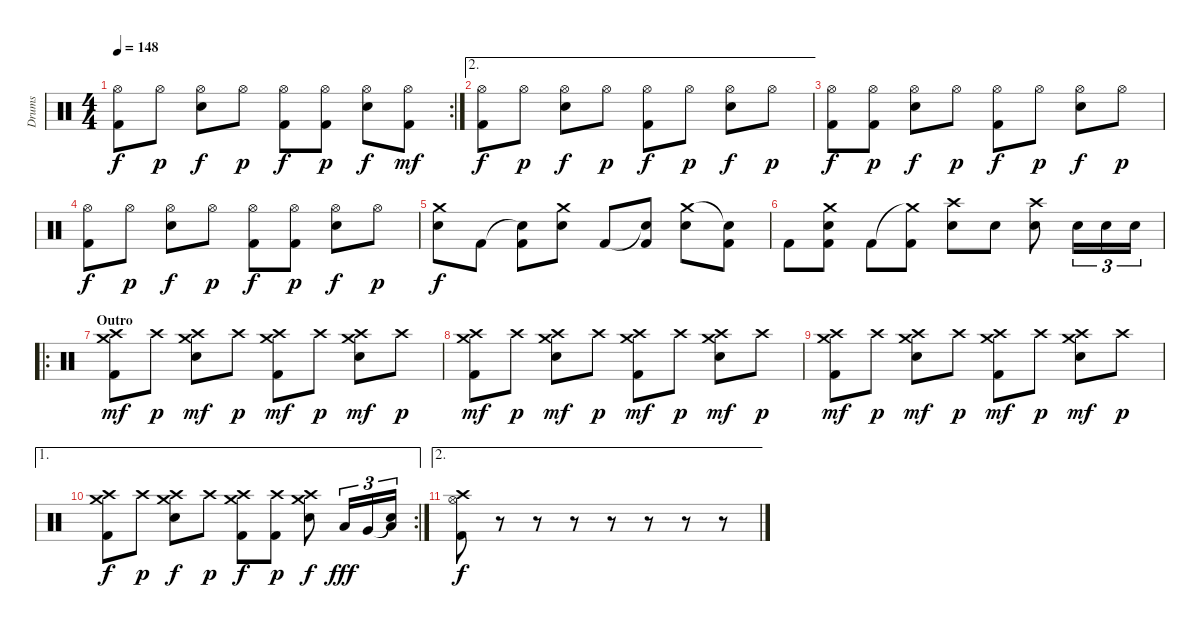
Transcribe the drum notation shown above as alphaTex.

\track ("Drums" "Drums") {instrument percussion}
\staff {score}
\articulation defaults
\rc 2
\ts (4 4)
\tempo 148
\clef neutral
\ks c
("Hi-Hat (open)" "Kick (hit) 2").8{dy f} "Hi-Hat (open)".8{dy p} ("Hi-Hat (open)" "Snare (hit) 2").8{dy f} "Hi-Hat (open)".8{dy p} ("Hi-Hat (open)" "Kick (hit) 2").8{dy f} ("Hi-Hat (open)" "Kick (hit) 2").8{dy p} ("Hi-Hat (open)" "Snare (hit) 2").8{dy f} ("Hi-Hat (open)" "Kick (hit) 2").8{dy mf} |
\ae 2
("Hi-Hat (open)" "Kick (hit) 2").8{dy f} "Hi-Hat (open)".8{dy p} ("Hi-Hat (open)" "Snare (hit) 2").8{dy f} "Hi-Hat (open)".8{dy p} ("Hi-Hat (open)" "Kick (hit) 2").8{dy f} "Hi-Hat (open)".8{dy p} ("Hi-Hat (open)" "Snare (hit) 2").8{dy f} "Hi-Hat (open)".8{dy p} |
("Hi-Hat (open)" "Kick (hit) 2").8{dy f} ("Hi-Hat (open)" "Kick (hit) 2").8{dy p} ("Hi-Hat (open)" "Snare (hit) 2").8{dy f} "Hi-Hat (open)".8{dy p} ("Hi-Hat (open)" "Kick (hit) 2").8{dy f} "Hi-Hat (open)".8{dy p} ("Hi-Hat (open)" "Snare (hit) 2").8{dy f} "Hi-Hat (open)".8{dy p} |
("Hi-Hat (open)" "Kick (hit) 2").8{dy f} "Hi-Hat (open)".8{dy p} ("Hi-Hat (open)" "Snare (hit) 2").8{dy f} "Hi-Hat (open)".8{dy p} ("Hi-Hat (open)" "Kick (hit) 2").8{dy f} ("Hi-Hat (open)" "Kick (hit) 2").8{dy p} ("Hi-Hat (open)" "Snare (hit) 2").8{dy f} "Hi-Hat (open)".8{dy p} |
("Crash medium (hit)" "Snare (hit) 2").8{dy f} "Kick (hit) 2".8 ("Snare (hit)"{t} "Kick (hit) 2").8 ("Crash medium (hit)" "Snare (hit) 2").8 "Kick (hit) 2".8 ("Snare (hit)"{t} "Kick (hit) 2").8 ("Crash medium (hit)" "Snare (hit) 2").8 ("Snare (hit)"{t} "Kick (hit) 2").8 |
"Kick (hit) 2".8 ("Crash medium (hit)" "Snare (hit) 2" "Kick (hit) 2").8 "Kick (hit) 2".8 ("Crash medium (hit)"{t} "Kick (hit) 2").8 ("Crash high (hit)" "Snare (hit) 2").8 "Snare (hit) 2".8 ("Crash high (hit)" "Snare (hit) 2").8 "Snare (hit) 2".16{tu (3 2)} "Snare (hit) 2".16{tu (3 2)} "Snare (hit) 2".16{tu (3 2)} |
\ro
\section ("" "Outro")
("Crash high (hit)" "Crash medium (hit)" "Kick (hit) 2").8{dy mf} "Crash high (hit)".8{dy p} ("Crash high (hit)" "Crash medium (hit)" "Snare (hit) 2").8{dy mf} "Crash high (hit)".8{dy p} ("Crash high (hit)" "Crash medium (hit)" "Kick (hit) 2").8{dy mf} "Crash high (hit)".8{dy p} ("Crash high (hit)" "Crash medium (hit)" "Snare (hit) 2").8{dy mf} "Crash high (hit)".8{dy p} |
("Crash high (hit)" "Crash medium (hit)" "Kick (hit) 2").8{dy mf} "Crash high (hit)".8{dy p} ("Crash high (hit)" "Crash medium (hit)" "Snare (hit) 2").8{dy mf} "Crash high (hit)".8{dy p} ("Crash high (hit)" "Crash medium (hit)" "Kick (hit) 2").8{dy mf} "Crash high (hit)".8{dy p} ("Crash high (hit)" "Crash medium (hit)" "Snare (hit) 2").8{dy mf} "Crash high (hit)".8{dy p} |
("Crash high (hit)" "Crash medium (hit)" "Kick (hit) 2").8{dy mf} "Crash high (hit)".8{dy p} ("Crash high (hit)" "Crash medium (hit)" "Snare (hit) 2").8{dy mf} "Crash high (hit)".8{dy p} ("Crash high (hit)" "Crash medium (hit)" "Kick (hit) 2").8{dy mf} "Crash high (hit)".8{dy p} ("Crash high (hit)" "Crash medium (hit)" "Snare (hit) 2").8{dy mf} "Crash high (hit)".8{dy p} |
\ae 1
\rc 2
("Crash high (hit)" "Crash medium (hit)" "Kick (hit) 2").8{dy f} "Crash high (hit)".8{dy p} ("Crash high (hit)" "Crash medium (hit)" "Snare (hit) 2").8{dy f} "Crash high (hit)".8{dy p} ("Crash high (hit)" "Crash medium (hit)" "Kick (hit) 2").8{dy f} ("Crash high (hit)" "Kick (hit) 2").8{dy p} ("Crash high (hit)" "Crash medium (hit)" "Snare (hit) 2").8{dy f} "Low Tom (hit)".16{tu (3 2) dy fff} "Very Low Tom (hit)".16{tu (3 2)} ("Snare (hit)"{t} "Low Floor Tom (hit)").16{tu (3 2)} |
\ae 2
("Crash high (hit)" "Hi-Hat (open)" "Kick (hit) 2").8{dy f} r.8 r.8 r.8 r.8 r.8 r.8 r.8
